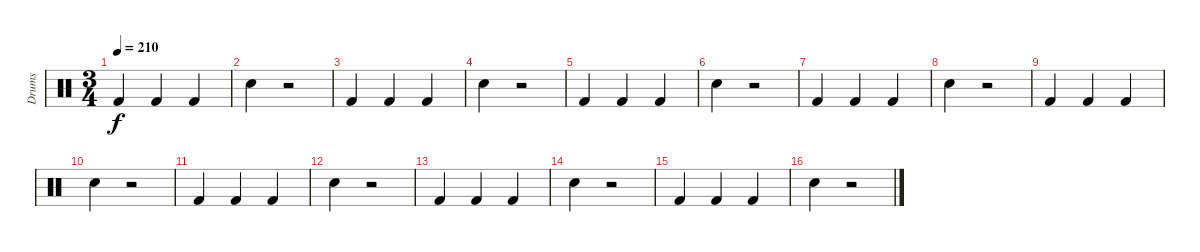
\track ("Drums" "Drums") {instrument percussion}
\staff {score}
\articulation defaults
\ts (3 4)
\tempo 210
\clef neutral
\ks c "Kick (hit) 2".4{dy f} "Kick (hit) 2".4 "Kick (hit) 2".4
|
"Electric Snare (hit)".4 r.2 |
"Kick (hit) 2".4 "Kick (hit) 2".4 "Kick (hit) 2".4 |
"Electric Snare (hit)".4 r.2 |
"Kick (hit) 2".4 "Kick (hit) 2".4 "Kick (hit) 2".4 |
"Electric Snare (hit)".4 r.2 |
"Kick (hit) 2".4 "Kick (hit) 2".4 "Kick (hit) 2".4 |
"Electric Snare (hit)".4 r.2 |
"Kick (hit) 2".4 "Kick (hit) 2".4 "Kick (hit) 2".4 |
"Electric Snare (hit)".4 r.2 |
"Kick (hit) 2".4 "Kick (hit) 2".4 "Kick (hit) 2".4 |
"Electric Snare (hit)".4 r.2 |
"Kick (hit) 2".4 "Kick (hit) 2".4 "Kick (hit) 2".4 |
"Electric Snare (hit)".4 r.2 |
"Kick (hit) 2".4 "Kick (hit) 2".4 "Kick (hit) 2".4 |
"Electric Snare (hit)".4 r.2
